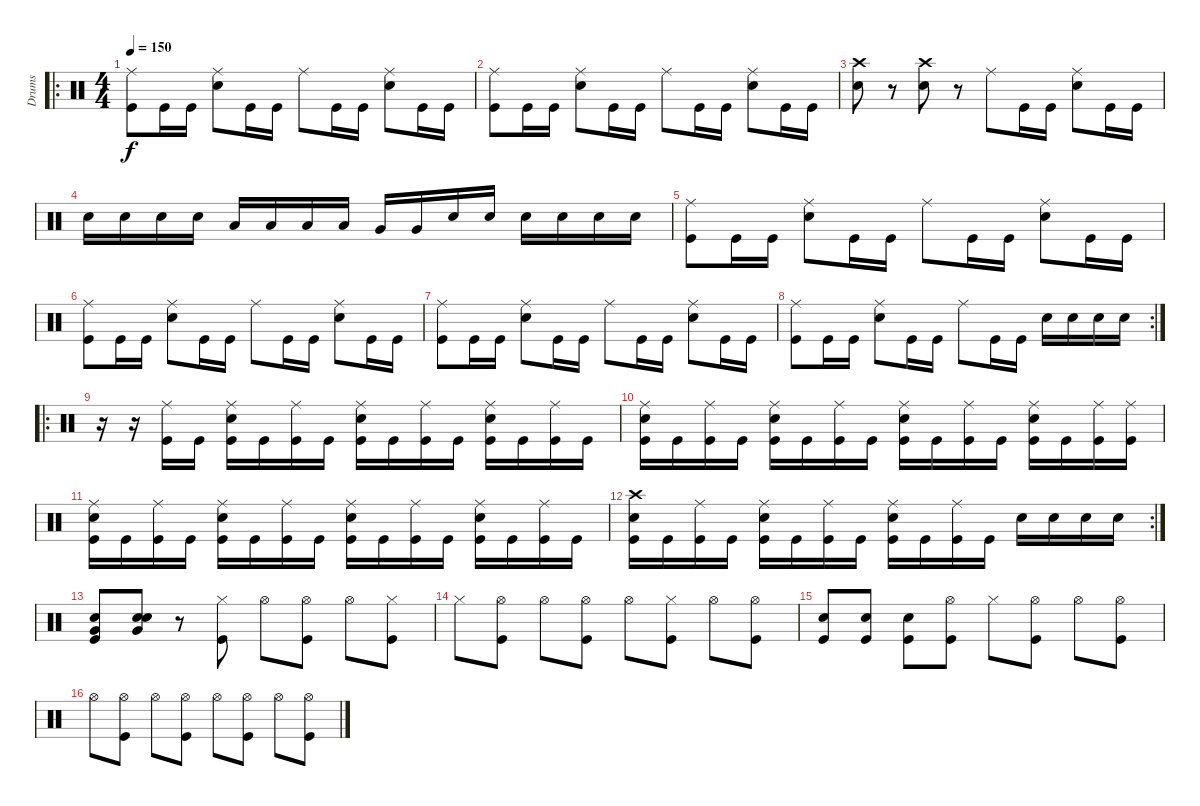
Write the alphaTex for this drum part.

\track ("Drums" "Drums") {instrument percussion}
\staff {score}
\articulation defaults
\ro
\ts (4 4)
\tempo 150
\clef neutral
\ks c
("Ride (middle)" "Kick (hit)").8{dy f} "Kick (hit)".16 "Kick (hit)".16 ("Ride (middle)" "Snare (hit) 2").8 "Kick (hit)".16 "Kick (hit)".16 "Ride (middle)".8 "Kick (hit)".16 "Kick (hit)".16 ("Ride (middle)" "Snare (hit) 2").8 "Kick (hit)".16 "Kick (hit)".16 |
("Ride (middle)" "Kick (hit)").8 "Kick (hit)".16 "Kick (hit)".16 ("Ride (middle)" "Snare (hit) 2").8 "Kick (hit)".16 "Kick (hit)".16 "Ride (middle)".8 "Kick (hit)".16 "Kick (hit)".16 ("Ride (middle)" "Snare (hit) 2").8 "Kick (hit)".16 "Kick (hit)".16 |
("Crash high (hit)" "Snare (hit) 2").8 r.8 ("Crash high (hit)" "Snare (hit) 2").8 r.8 "Ride (middle)".8 "Kick (hit)".16 "Kick (hit)".16 ("Ride (middle)" "Snare (hit) 2").8 "Kick (hit)".16 "Kick (hit)".16 |
"Snare (hit) 2".16 "Snare (hit) 2".16 "Snare (hit) 2".16 "Snare (hit) 2".16 "Low Floor Tom (hit)".16 "Low Floor Tom (hit)".16 "Low Floor Tom (hit)".16 "Low Floor Tom (hit)".16 "Very Low Tom (hit)".16 "Very Low Tom (hit)".16 "Snare (hit) 2".16 "Snare (hit) 2".16 "Snare (hit) 2".16 "Snare (hit) 2".16 "Snare (hit) 2".16 "Snare (hit) 2".16 |
("Ride (middle)" "Kick (hit)").8 "Kick (hit)".16 "Kick (hit)".16 ("Ride (middle)" "Snare (hit) 2").8 "Kick (hit)".16 "Kick (hit)".16 "Ride (middle)".8 "Kick (hit)".16 "Kick (hit)".16 ("Ride (middle)" "Snare (hit) 2").8 "Kick (hit)".16 "Kick (hit)".16 |
("Ride (middle)" "Kick (hit)").8 "Kick (hit)".16 "Kick (hit)".16 ("Ride (middle)" "Snare (hit) 2").8 "Kick (hit)".16 "Kick (hit)".16 "Ride (middle)".8 "Kick (hit)".16 "Kick (hit)".16 ("Ride (middle)" "Snare (hit) 2").8 "Kick (hit)".16 "Kick (hit)".16 |
("Ride (middle)" "Kick (hit)").8 "Kick (hit)".16 "Kick (hit)".16 ("Ride (middle)" "Snare (hit) 2").8 "Kick (hit)".16 "Kick (hit)".16 "Ride (middle)".8 "Kick (hit)".16 "Kick (hit)".16 ("Ride (middle)" "Snare (hit) 2").8 "Kick (hit)".16 "Kick (hit)".16 |
\rc 2
("Ride (middle)" "Kick (hit)").8 "Kick (hit)".16 "Kick (hit)".16 ("Ride (middle)" "Snare (hit) 2").8 "Kick (hit)".16 "Kick (hit)".16 "Ride (middle)".8 "Kick (hit)".16 "Kick (hit)".16 "Snare (hit) 2".16 "Snare (hit) 2".16 "Snare (hit) 2".16 "Snare (hit) 2".16 |
\ro
r.16 r.16 ("Ride (middle)" "Kick (hit)").16 "Kick (hit)".16 ("Ride (middle)" "Snare (hit) 2" "Kick (hit)").16 "Kick (hit)".16 ("Ride (middle)" "Kick (hit)").16 "Kick (hit)".16 ("Ride (middle)" "Snare (hit) 2" "Kick (hit)").16 "Kick (hit)".16 ("Ride (middle)" "Kick (hit)").16 "Kick (hit)".16 ("Ride (middle)" "Snare (hit) 2" "Kick (hit)").16 "Kick (hit)".16 ("Ride (middle)" "Kick (hit)").16 "Kick (hit)".16 |
("Ride (middle)" "Snare (hit) 2" "Kick (hit)").16 "Kick (hit)".16 ("Ride (middle)" "Kick (hit)").16 "Kick (hit)".16 ("Ride (middle)" "Snare (hit) 2" "Kick (hit)").16 "Kick (hit)".16 ("Ride (middle)" "Kick (hit)").16 "Kick (hit)".16 ("Ride (middle)" "Snare (hit) 2" "Kick (hit)").16 "Kick (hit)".16 ("Ride (middle)" "Kick (hit)").16 "Kick (hit)".16 ("Ride (middle)" "Snare (hit) 2" "Kick (hit)").16 "Kick (hit)".16 ("Ride (middle)" "Kick (hit)").16 ("Ride (middle)" "Kick (hit)").16 |
("Ride (middle)" "Snare (hit) 2" "Kick (hit)").16 "Kick (hit)".16 ("Ride (middle)" "Kick (hit)").16 "Kick (hit)".16 ("Ride (middle)" "Snare (hit) 2" "Kick (hit)").16 "Kick (hit)".16 ("Ride (middle)" "Kick (hit)").16 "Kick (hit)".16 ("Ride (middle)" "Snare (hit) 2" "Kick (hit)").16 "Kick (hit)".16 ("Ride (middle)" "Kick (hit)").16 "Kick (hit)".16 ("Ride (middle)" "Snare (hit) 2" "Kick (hit)").16 "Kick (hit)".16 ("Ride (middle)" "Kick (hit)").16 "Kick (hit)".16 |
\rc 2
("Crash high (hit)" "Snare (hit) 2" "Kick (hit)").16 "Kick (hit)".16 ("Ride (middle)" "Kick (hit)").16 "Kick (hit)".16 ("Ride (middle)" "Snare (hit) 2" "Kick (hit)").16 "Kick (hit)".16 ("Ride (middle)" "Kick (hit)").16 "Kick (hit)".16 ("Ride (middle)" "Snare (hit) 2" "Kick (hit)").16 "Kick (hit)".16 ("Ride (middle)" "Kick (hit)").16 "Kick (hit)".16 "Snare (hit) 2".16 "Snare (hit) 2".16 "Snare (hit) 2".16 "Snare (hit) 2".16 |
("Snare (hit) 2" "Very Low Tom (hit)" "Kick (hit)").8 ("Snare (hit) 2" "Very Low Tom (hit)" "Snare (hit)").8 r.8 ("Hi-Hat (closed)" "Kick (hit)").8 "Hi-Hat (open)".8 ("Hi-Hat (open)" "Kick (hit)").8 "Hi-Hat (open)".8 ("Hi-Hat (closed)" "Kick (hit)").8 |
"Hi-Hat (closed)".8 ("Hi-Hat (open)" "Kick (hit)").8 "Hi-Hat (open)".8 ("Hi-Hat (open)" "Kick (hit)").8 "Hi-Hat (open)".8 ("Hi-Hat (closed)" "Kick (hit)").8 "Hi-Hat (open)".8 ("Hi-Hat (open)" "Kick (hit)").8 |
("Snare (hit) 2" "Kick (hit)").8 ("Snare (hit) 2" "Kick (hit)").8 ("Snare (hit) 2" "Kick (hit)").8 ("Hi-Hat (open)" "Kick (hit)").8 "Hi-Hat (closed)".8 ("Hi-Hat (open)" "Kick (hit)").8 "Hi-Hat (open)".8 ("Hi-Hat (open)" "Kick (hit)").8 |
"Hi-Hat (open)".8 ("Hi-Hat (open)" "Kick (hit)").8 "Hi-Hat (open)".8 ("Hi-Hat (open)" "Kick (hit)").8 "Hi-Hat (open)".8 ("Hi-Hat (open)" "Kick (hit)").8 "Hi-Hat (open)".8 ("Hi-Hat (open)" "Kick (hit)").8
